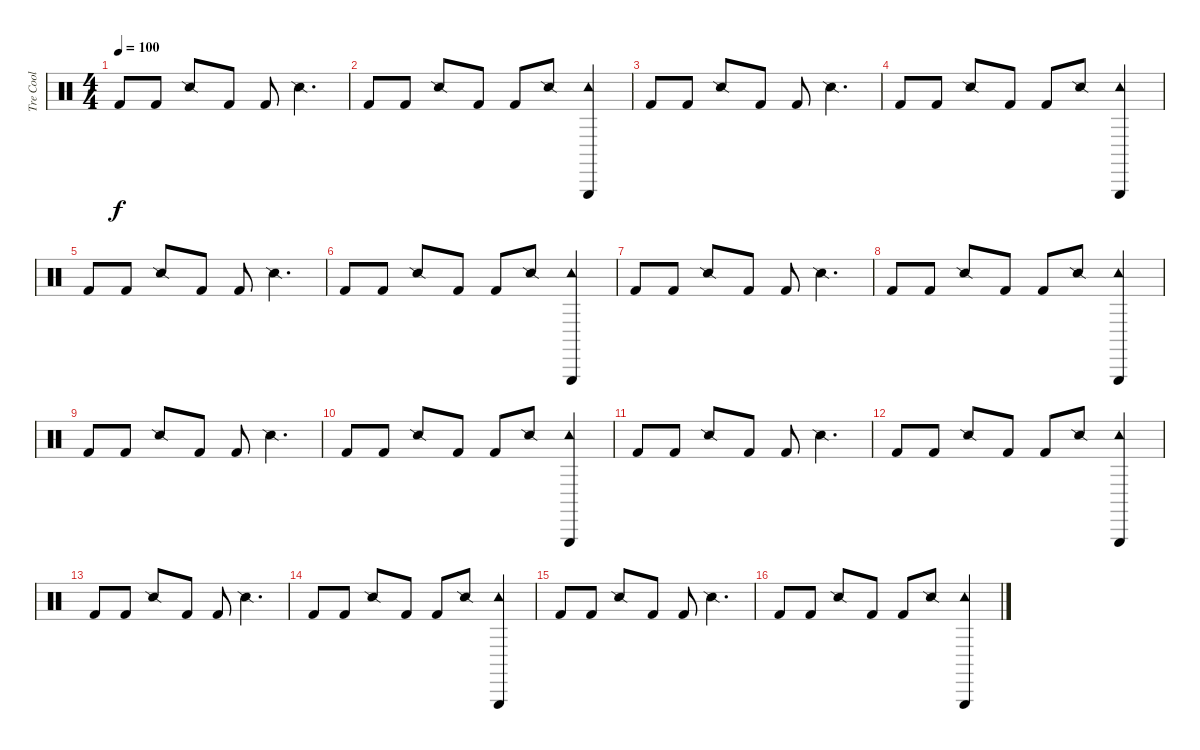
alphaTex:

\track ("Tre Cool" "Tre Cool") {instrument percussion}
\staff {score}
\articulation defaults
\ts (4 4)
\tempo 100
\clef neutral
\ks c "Kick (hit) 2".8{dy f} "Kick (hit) 2".8 "Snare (side stick) 2".8 "Kick (hit) 2".8 "Kick (hit) 2".8 "Snare (side stick) 2".4{d}
|
"Kick (hit) 2".8 "Kick (hit) 2".8 "Snare (side stick) 2".8 "Kick (hit) 2".8 "Kick (hit) 2".8 "Snare (side stick) 2".8 ("Triangle (hit)" "Tambourine (hit)").4 |
"Kick (hit) 2".8 "Kick (hit) 2".8 "Snare (side stick) 2".8 "Kick (hit) 2".8 "Kick (hit) 2".8 "Snare (side stick) 2".4{d} |
"Kick (hit) 2".8 "Kick (hit) 2".8 "Snare (side stick) 2".8 "Kick (hit) 2".8 "Kick (hit) 2".8 "Snare (side stick) 2".8 ("Triangle (hit)" "Tambourine (hit)").4 |
"Kick (hit) 2".8 "Kick (hit) 2".8 "Snare (side stick) 2".8 "Kick (hit) 2".8 "Kick (hit) 2".8 "Snare (side stick) 2".4{d} |
"Kick (hit) 2".8 "Kick (hit) 2".8 "Snare (side stick) 2".8 "Kick (hit) 2".8 "Kick (hit) 2".8 "Snare (side stick) 2".8 ("Triangle (hit)" "Tambourine (hit)").4 |
"Kick (hit) 2".8 "Kick (hit) 2".8 "Snare (side stick) 2".8 "Kick (hit) 2".8 "Kick (hit) 2".8 "Snare (side stick) 2".4{d} |
"Kick (hit) 2".8 "Kick (hit) 2".8 "Snare (side stick) 2".8 "Kick (hit) 2".8 "Kick (hit) 2".8 "Snare (side stick) 2".8 ("Triangle (hit)" "Tambourine (hit)").4 |
"Kick (hit) 2".8 "Kick (hit) 2".8 "Snare (side stick) 2".8 "Kick (hit) 2".8 "Kick (hit) 2".8 "Snare (side stick) 2".4{d} |
"Kick (hit) 2".8 "Kick (hit) 2".8 "Snare (side stick) 2".8 "Kick (hit) 2".8 "Kick (hit) 2".8 "Snare (side stick) 2".8 ("Triangle (hit)" "Tambourine (hit)").4 |
"Kick (hit) 2".8 "Kick (hit) 2".8 "Snare (side stick) 2".8 "Kick (hit) 2".8 "Kick (hit) 2".8 "Snare (side stick) 2".4{d} |
"Kick (hit) 2".8 "Kick (hit) 2".8 "Snare (side stick) 2".8 "Kick (hit) 2".8 "Kick (hit) 2".8 "Snare (side stick) 2".8 ("Triangle (hit)" "Tambourine (hit)").4 |
"Kick (hit) 2".8 "Kick (hit) 2".8 "Snare (side stick) 2".8 "Kick (hit) 2".8 "Kick (hit) 2".8 "Snare (side stick) 2".4{d} |
"Kick (hit) 2".8 "Kick (hit) 2".8 "Snare (side stick) 2".8 "Kick (hit) 2".8 "Kick (hit) 2".8 "Snare (side stick) 2".8 ("Triangle (hit)" "Tambourine (hit)").4 |
"Kick (hit) 2".8 "Kick (hit) 2".8 "Snare (side stick) 2".8 "Kick (hit) 2".8 "Kick (hit) 2".8 "Snare (side stick) 2".4{d} |
"Kick (hit) 2".8 "Kick (hit) 2".8 "Snare (side stick) 2".8 "Kick (hit) 2".8 "Kick (hit) 2".8 "Snare (side stick) 2".8 ("Triangle (hit)" "Tambourine (hit)").4
